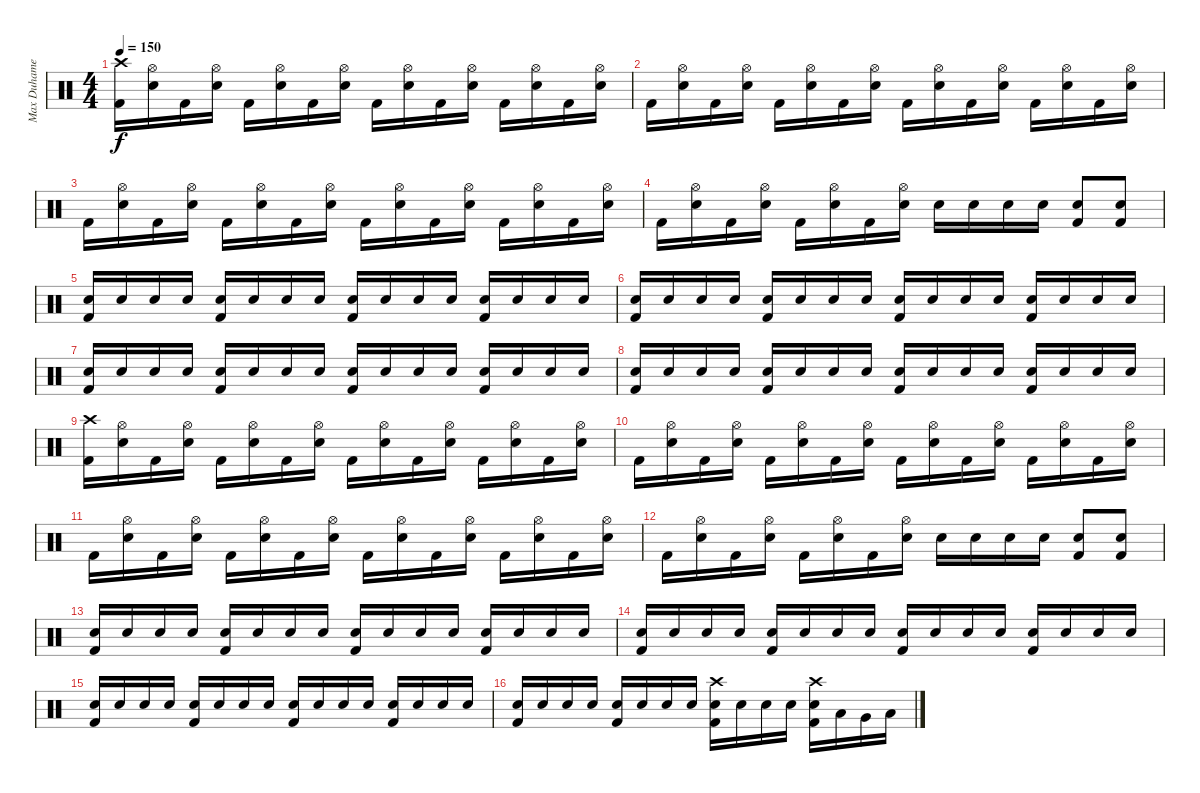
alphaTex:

\track ("Max Duhamel (Drums)" "Max Duhame") {instrument percussion}
\staff {score}
\articulation defaults
\ts (4 4)
\tempo 150
\clef neutral
\ks c
("Crash high (hit)" "Kick (hit) 2").16{dy f} ("Hi-Hat (open)" "Electric Snare (hit)").16 "Kick (hit) 2".16 ("Hi-Hat (open)" "Electric Snare (hit)").16 "Kick (hit) 2".16 ("Hi-Hat (open)" "Electric Snare (hit)").16 "Kick (hit) 2".16 ("Hi-Hat (open)" "Electric Snare (hit)").16 "Kick (hit) 2".16 ("Hi-Hat (open)" "Electric Snare (hit)").16 "Kick (hit) 2".16 ("Hi-Hat (open)" "Electric Snare (hit)").16 "Kick (hit) 2".16 ("Hi-Hat (open)" "Electric Snare (hit)").16 "Kick (hit) 2".16 ("Hi-Hat (open)" "Electric Snare (hit)").16 |
"Kick (hit) 2".16 ("Hi-Hat (open)" "Electric Snare (hit)").16 "Kick (hit) 2".16 ("Hi-Hat (open)" "Electric Snare (hit)").16 "Kick (hit) 2".16 ("Hi-Hat (open)" "Electric Snare (hit)").16 "Kick (hit) 2".16 ("Hi-Hat (open)" "Electric Snare (hit)").16 "Kick (hit) 2".16 ("Hi-Hat (open)" "Electric Snare (hit)").16 "Kick (hit) 2".16 ("Hi-Hat (open)" "Electric Snare (hit)").16 "Kick (hit) 2".16 ("Hi-Hat (open)" "Electric Snare (hit)").16 "Kick (hit) 2".16 ("Hi-Hat (open)" "Electric Snare (hit)").16 |
"Kick (hit) 2".16 ("Hi-Hat (open)" "Electric Snare (hit)").16 "Kick (hit) 2".16 ("Hi-Hat (open)" "Electric Snare (hit)").16 "Kick (hit) 2".16 ("Hi-Hat (open)" "Electric Snare (hit)").16 "Kick (hit) 2".16 ("Hi-Hat (open)" "Electric Snare (hit)").16 "Kick (hit) 2".16 ("Hi-Hat (open)" "Electric Snare (hit)").16 "Kick (hit) 2".16 ("Hi-Hat (open)" "Electric Snare (hit)").16 "Kick (hit) 2".16 ("Hi-Hat (open)" "Electric Snare (hit)").16 "Kick (hit) 2".16 ("Hi-Hat (open)" "Electric Snare (hit)").16 |
"Kick (hit) 2".16 ("Hi-Hat (open)" "Electric Snare (hit)").16 "Kick (hit) 2".16 ("Hi-Hat (open)" "Electric Snare (hit)").16 "Kick (hit) 2".16 ("Hi-Hat (open)" "Electric Snare (hit)").16 "Kick (hit) 2".16 ("Hi-Hat (open)" "Electric Snare (hit)").16 "Electric Snare (hit)".16 "Electric Snare (hit)".16 "Electric Snare (hit)".16 "Electric Snare (hit)".16 ("Electric Snare (hit)" "Kick (hit) 2").8 ("Electric Snare (hit)" "Kick (hit) 2").8 |
("Electric Snare (hit)" "Kick (hit) 2").16 "Electric Snare (hit)".16 "Electric Snare (hit)".16 "Electric Snare (hit)".16 ("Electric Snare (hit)" "Kick (hit) 2").16 "Electric Snare (hit)".16 "Electric Snare (hit)".16 "Electric Snare (hit)".16 ("Electric Snare (hit)" "Kick (hit) 2").16 "Electric Snare (hit)".16 "Electric Snare (hit)".16 "Electric Snare (hit)".16 ("Electric Snare (hit)" "Kick (hit) 2").16 "Electric Snare (hit)".16 "Electric Snare (hit)".16 "Electric Snare (hit)".16 |
("Electric Snare (hit)" "Kick (hit) 2").16 "Electric Snare (hit)".16 "Electric Snare (hit)".16 "Electric Snare (hit)".16 ("Electric Snare (hit)" "Kick (hit) 2").16 "Electric Snare (hit)".16 "Electric Snare (hit)".16 "Electric Snare (hit)".16 ("Electric Snare (hit)" "Kick (hit) 2").16 "Electric Snare (hit)".16 "Electric Snare (hit)".16 "Electric Snare (hit)".16 ("Electric Snare (hit)" "Kick (hit) 2").16 "Electric Snare (hit)".16 "Electric Snare (hit)".16 "Electric Snare (hit)".16 |
("Electric Snare (hit)" "Kick (hit) 2").16 "Electric Snare (hit)".16 "Electric Snare (hit)".16 "Electric Snare (hit)".16 ("Electric Snare (hit)" "Kick (hit) 2").16 "Electric Snare (hit)".16 "Electric Snare (hit)".16 "Electric Snare (hit)".16 ("Electric Snare (hit)" "Kick (hit) 2").16 "Electric Snare (hit)".16 "Electric Snare (hit)".16 "Electric Snare (hit)".16 ("Electric Snare (hit)" "Kick (hit) 2").16 "Electric Snare (hit)".16 "Electric Snare (hit)".16 "Electric Snare (hit)".16 |
("Electric Snare (hit)" "Kick (hit) 2").16 "Electric Snare (hit)".16 "Electric Snare (hit)".16 "Electric Snare (hit)".16 ("Electric Snare (hit)" "Kick (hit) 2").16 "Electric Snare (hit)".16 "Electric Snare (hit)".16 "Electric Snare (hit)".16 ("Electric Snare (hit)" "Kick (hit) 2").16 "Electric Snare (hit)".16 "Electric Snare (hit)".16 "Electric Snare (hit)".16 ("Electric Snare (hit)" "Kick (hit) 2").16 "Electric Snare (hit)".16 "Electric Snare (hit)".16 "Electric Snare (hit)".16 |
("Crash high (hit)" "Kick (hit) 2").16 ("Hi-Hat (open)" "Electric Snare (hit)").16 "Kick (hit) 2".16 ("Hi-Hat (open)" "Electric Snare (hit)").16 "Kick (hit) 2".16 ("Hi-Hat (open)" "Electric Snare (hit)").16 "Kick (hit) 2".16 ("Hi-Hat (open)" "Electric Snare (hit)").16 "Kick (hit) 2".16 ("Hi-Hat (open)" "Electric Snare (hit)").16 "Kick (hit) 2".16 ("Hi-Hat (open)" "Electric Snare (hit)").16 "Kick (hit) 2".16 ("Hi-Hat (open)" "Electric Snare (hit)").16 "Kick (hit) 2".16 ("Hi-Hat (open)" "Electric Snare (hit)").16 |
"Kick (hit) 2".16 ("Hi-Hat (open)" "Electric Snare (hit)").16 "Kick (hit) 2".16 ("Hi-Hat (open)" "Electric Snare (hit)").16 "Kick (hit) 2".16 ("Hi-Hat (open)" "Electric Snare (hit)").16 "Kick (hit) 2".16 ("Hi-Hat (open)" "Electric Snare (hit)").16 "Kick (hit) 2".16 ("Hi-Hat (open)" "Electric Snare (hit)").16 "Kick (hit) 2".16 ("Hi-Hat (open)" "Electric Snare (hit)").16 "Kick (hit) 2".16 ("Hi-Hat (open)" "Electric Snare (hit)").16 "Kick (hit) 2".16 ("Hi-Hat (open)" "Electric Snare (hit)").16 |
"Kick (hit) 2".16 ("Hi-Hat (open)" "Electric Snare (hit)").16 "Kick (hit) 2".16 ("Hi-Hat (open)" "Electric Snare (hit)").16 "Kick (hit) 2".16 ("Hi-Hat (open)" "Electric Snare (hit)").16 "Kick (hit) 2".16 ("Hi-Hat (open)" "Electric Snare (hit)").16 "Kick (hit) 2".16 ("Hi-Hat (open)" "Electric Snare (hit)").16 "Kick (hit) 2".16 ("Hi-Hat (open)" "Electric Snare (hit)").16 "Kick (hit) 2".16 ("Hi-Hat (open)" "Electric Snare (hit)").16 "Kick (hit) 2".16 ("Hi-Hat (open)" "Electric Snare (hit)").16 |
"Kick (hit) 2".16 ("Hi-Hat (open)" "Electric Snare (hit)").16 "Kick (hit) 2".16 ("Hi-Hat (open)" "Electric Snare (hit)").16 "Kick (hit) 2".16 ("Hi-Hat (open)" "Electric Snare (hit)").16 "Kick (hit) 2".16 ("Hi-Hat (open)" "Electric Snare (hit)").16 "Electric Snare (hit)".16 "Electric Snare (hit)".16 "Electric Snare (hit)".16 "Electric Snare (hit)".16 ("Electric Snare (hit)" "Kick (hit) 2").8 ("Electric Snare (hit)" "Kick (hit) 2").8 |
("Electric Snare (hit)" "Kick (hit) 2").16 "Electric Snare (hit)".16 "Electric Snare (hit)".16 "Electric Snare (hit)".16 ("Electric Snare (hit)" "Kick (hit) 2").16 "Electric Snare (hit)".16 "Electric Snare (hit)".16 "Electric Snare (hit)".16 ("Electric Snare (hit)" "Kick (hit) 2").16 "Electric Snare (hit)".16 "Electric Snare (hit)".16 "Electric Snare (hit)".16 ("Electric Snare (hit)" "Kick (hit) 2").16 "Electric Snare (hit)".16 "Electric Snare (hit)".16 "Electric Snare (hit)".16 |
("Electric Snare (hit)" "Kick (hit) 2").16 "Electric Snare (hit)".16 "Electric Snare (hit)".16 "Electric Snare (hit)".16 ("Electric Snare (hit)" "Kick (hit) 2").16 "Electric Snare (hit)".16 "Electric Snare (hit)".16 "Electric Snare (hit)".16 ("Electric Snare (hit)" "Kick (hit) 2").16 "Electric Snare (hit)".16 "Electric Snare (hit)".16 "Electric Snare (hit)".16 ("Electric Snare (hit)" "Kick (hit) 2").16 "Electric Snare (hit)".16 "Electric Snare (hit)".16 "Electric Snare (hit)".16 |
("Electric Snare (hit)" "Kick (hit) 2").16 "Electric Snare (hit)".16 "Electric Snare (hit)".16 "Electric Snare (hit)".16 ("Electric Snare (hit)" "Kick (hit) 2").16 "Electric Snare (hit)".16 "Electric Snare (hit)".16 "Electric Snare (hit)".16 ("Electric Snare (hit)" "Kick (hit) 2").16 "Electric Snare (hit)".16 "Electric Snare (hit)".16 "Electric Snare (hit)".16 ("Electric Snare (hit)" "Kick (hit) 2").16 "Electric Snare (hit)".16 "Electric Snare (hit)".16 "Electric Snare (hit)".16 |
("Electric Snare (hit)" "Kick (hit) 2").16 "Electric Snare (hit)".16 "Electric Snare (hit)".16 "Electric Snare (hit)".16 ("Electric Snare (hit)" "Kick (hit) 2").16 "Electric Snare (hit)".16 "Electric Snare (hit)".16 "Electric Snare (hit)".16 ("Crash high (hit)" "Electric Snare (hit)" "Kick (hit) 2").16 "Electric Snare (hit)".16 "Electric Snare (hit)".16 "Electric Snare (hit)".16 ("Crash high (hit)" "Electric Snare (hit)" "Kick (hit) 2").16 "Low Tom (hit)".16 "Very Low Tom (hit)".16 "Low Floor Tom (hit)".16
